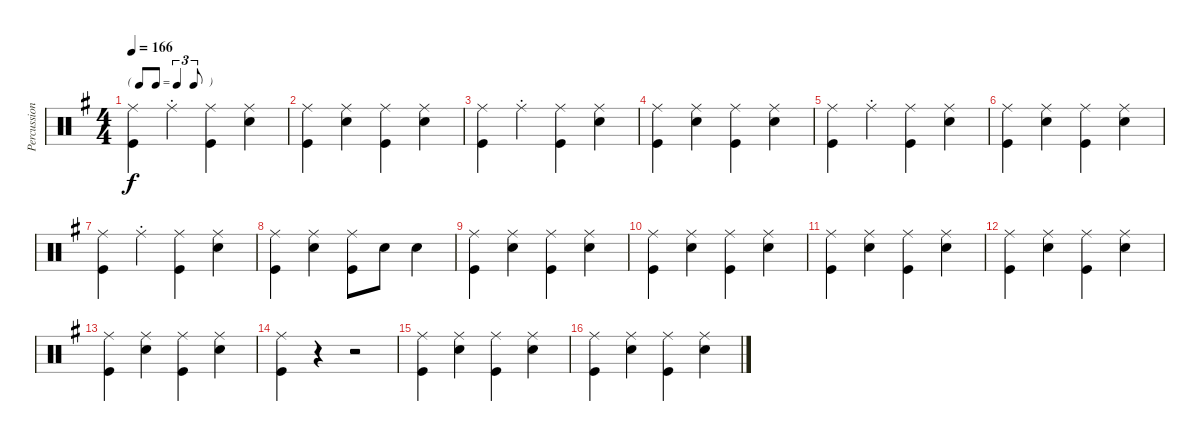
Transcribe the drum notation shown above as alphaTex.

\track ("Percussion" "Percussion") {instrument percussion}
\staff {score}
\articulation defaults
\ts (4 4)
\tf triplet8th
\tempo 166
\clef neutral
\ks g
("Ride (middle)" "Kick (hit)").4{dy f} "Ride (middle)"{st}.4 ("Ride (middle)" "Kick (hit)").4 ("Ride (middle)" "Snare (hit) 2").4 |
("Ride (middle)" "Kick (hit)").4 ("Ride (middle)" "Snare (hit) 2").4 ("Ride (middle)" "Kick (hit)").4 ("Ride (middle)" "Snare (hit) 2").4 |
("Ride (middle)" "Kick (hit)").4 "Ride (middle)"{st}.4 ("Ride (middle)" "Kick (hit)").4 ("Ride (middle)" "Snare (hit) 2").4 |
("Ride (middle)" "Kick (hit)").4 ("Ride (middle)" "Snare (hit) 2").4 ("Ride (middle)" "Kick (hit)").4 ("Ride (middle)" "Snare (hit) 2").4 |
("Ride (middle)" "Kick (hit)").4 "Ride (middle)"{st}.4 ("Ride (middle)" "Kick (hit)").4 ("Ride (middle)" "Snare (hit) 2").4 |
("Ride (middle)" "Kick (hit)").4 ("Ride (middle)" "Snare (hit) 2").4 ("Ride (middle)" "Kick (hit)").4 ("Ride (middle)" "Snare (hit) 2").4 |
("Ride (middle)" "Kick (hit)").4 "Ride (middle)"{st}.4 ("Ride (middle)" "Kick (hit)").4 ("Ride (middle)" "Snare (hit) 2").4 |
("Ride (middle)" "Kick (hit)").4 ("Ride (middle)" "Snare (hit) 2").4 ("Ride (middle)" "Kick (hit)").8 "Snare (hit) 2".8 "Snare (hit) 2".4 |
("Ride (middle)" "Kick (hit)").4 ("Ride (middle)" "Snare (hit) 2").4 ("Ride (middle)" "Kick (hit)").4 ("Ride (middle)" "Snare (hit) 2").4 |
("Ride (middle)" "Kick (hit)").4 ("Ride (middle)" "Snare (hit) 2").4 ("Ride (middle)" "Kick (hit)").4 ("Ride (middle)" "Snare (hit) 2").4 |
("Ride (middle)" "Kick (hit)").4 ("Ride (middle)" "Snare (hit) 2").4 ("Ride (middle)" "Kick (hit)").4 ("Ride (middle)" "Snare (hit) 2").4 |
("Ride (middle)" "Kick (hit)").4 ("Ride (middle)" "Snare (hit) 2").4 ("Ride (middle)" "Kick (hit)").4 ("Ride (middle)" "Snare (hit) 2").4 |
("Ride (middle)" "Kick (hit)").4 ("Ride (middle)" "Snare (hit) 2").4 ("Ride (middle)" "Kick (hit)").4 ("Ride (middle)" "Snare (hit) 2").4 |
("Ride (middle)" "Kick (hit)").4 r.4 r.2 |
("Ride (middle)" "Kick (hit)").4 ("Ride (middle)" "Snare (hit) 2").4 ("Ride (middle)" "Kick (hit)").4 ("Ride (middle)" "Snare (hit) 2").4 |
("Ride (middle)" "Kick (hit)").4 ("Ride (middle)" "Snare (hit) 2").4 ("Ride (middle)" "Kick (hit)").4 ("Ride (middle)" "Snare (hit) 2").4
